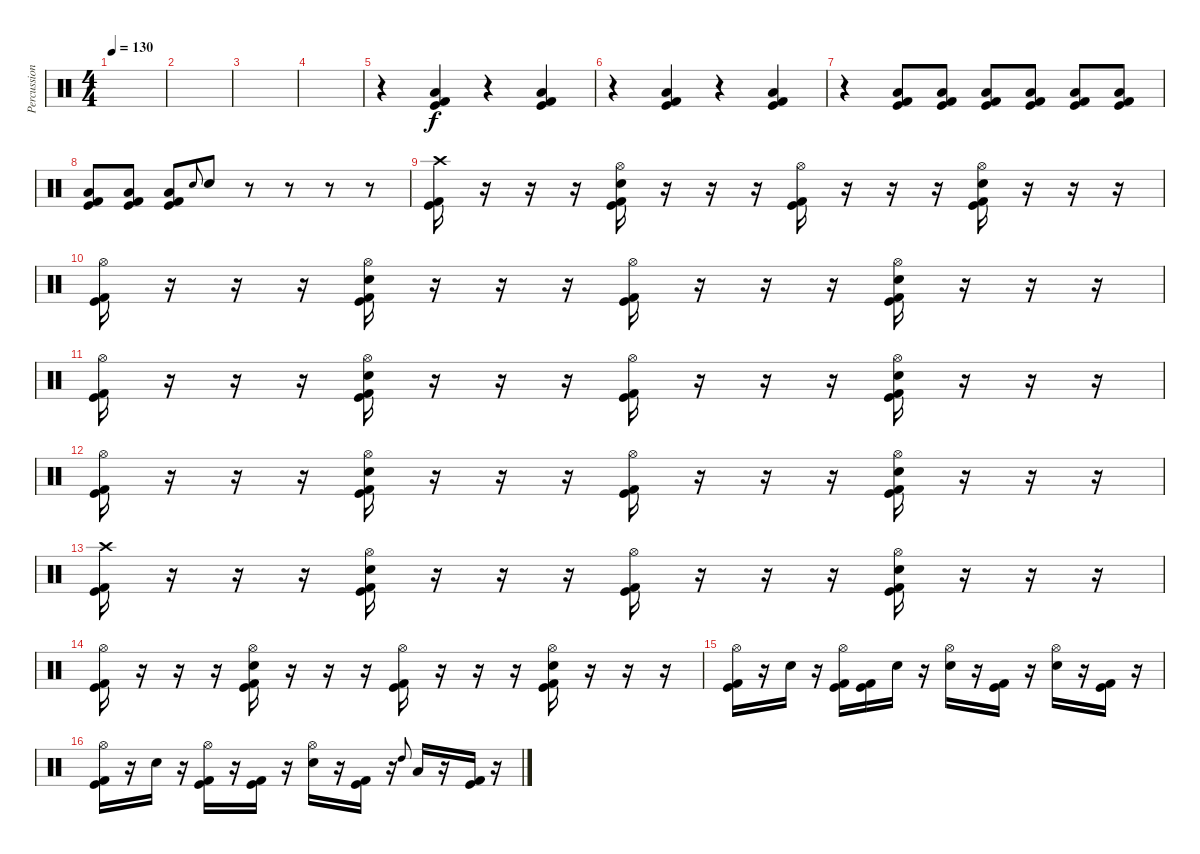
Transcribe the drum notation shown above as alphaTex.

\track ("Percussion" "Percussion") {instrument percussion}
\staff {score}
\articulation defaults
\ts (4 4)
\tempo 130
\clef neutral
\ks c
|
|
|
|
r.4 ("Low Tom (hit)" "Kick (hit)" "Kick (hit) 2").4 r.4 ("Low Tom (hit)" "Kick (hit)" "Kick (hit) 2").4 |
r.4 ("Low Tom (hit)" "Kick (hit)" "Kick (hit) 2").4 r.4 ("Low Tom (hit)" "Kick (hit)" "Kick (hit) 2").4 |
r.4 ("Low Tom (hit)" "Kick (hit)" "Kick (hit) 2").8 ("Low Tom (hit)" "Kick (hit)" "Kick (hit) 2").8 ("Low Tom (hit)" "Kick (hit)" "Kick (hit) 2").8 ("Low Tom (hit)" "Kick (hit)" "Kick (hit) 2").8 ("Low Tom (hit)" "Kick (hit)" "Kick (hit) 2").8 ("Low Tom (hit)" "Kick (hit)" "Kick (hit) 2").8 |
("Low Tom (hit)" "Kick (hit)" "Kick (hit) 2").8 ("Low Tom (hit)" "Kick (hit)" "Kick (hit) 2").8 ("Low Tom (hit)" "Kick (hit)" "Kick (hit) 2").8 "Electric Snare (hit)"{x}.8{gr onbeat} "Electric Snare (hit)".8 r.8 r.8 r.8 r.8 |
("Crash high (hit)" "Kick (hit)" "Kick (hit) 2").16 r.16 r.16 r.16 ("Hi-Hat (open)" "Electric Snare (hit)" "Kick (hit)" "Kick (hit) 2").16 r.16 r.16 r.16 ("Hi-Hat (open)" "Kick (hit)" "Kick (hit) 2").16 r.16 r.16 r.16 ("Hi-Hat (open)" "Electric Snare (hit)" "Kick (hit)" "Kick (hit) 2").16 r.16 r.16 r.16 |
("Hi-Hat (open)" "Kick (hit)" "Kick (hit) 2").16 r.16 r.16 r.16 ("Hi-Hat (open)" "Electric Snare (hit)" "Kick (hit)" "Kick (hit) 2").16 r.16 r.16 r.16 ("Hi-Hat (open)" "Kick (hit)" "Kick (hit) 2").16 r.16 r.16 r.16 ("Hi-Hat (open)" "Electric Snare (hit)" "Kick (hit)" "Kick (hit) 2").16 r.16 r.16 r.16 |
("Hi-Hat (open)" "Kick (hit)" "Kick (hit) 2").16 r.16 r.16 r.16 ("Hi-Hat (open)" "Electric Snare (hit)" "Kick (hit)" "Kick (hit) 2").16 r.16 r.16 r.16 ("Hi-Hat (open)" "Kick (hit)" "Kick (hit) 2").16 r.16 r.16 r.16 ("Hi-Hat (open)" "Electric Snare (hit)" "Kick (hit)" "Kick (hit) 2").16 r.16 r.16 r.16 |
("Hi-Hat (open)" "Kick (hit)" "Kick (hit) 2").16 r.16 r.16 r.16 ("Hi-Hat (open)" "Electric Snare (hit)" "Kick (hit)" "Kick (hit) 2").16 r.16 r.16 r.16 ("Hi-Hat (open)" "Kick (hit)" "Kick (hit) 2").16 r.16 r.16 r.16 ("Hi-Hat (open)" "Electric Snare (hit)" "Kick (hit)" "Kick (hit) 2").16 r.16 r.16 r.16 |
("Crash high (hit)" "Kick (hit)" "Kick (hit) 2").16 r.16 r.16 r.16 ("Hi-Hat (open)" "Electric Snare (hit)" "Kick (hit)" "Kick (hit) 2").16 r.16 r.16 r.16 ("Hi-Hat (open)" "Kick (hit)" "Kick (hit) 2").16 r.16 r.16 r.16 ("Hi-Hat (open)" "Electric Snare (hit)" "Kick (hit)" "Kick (hit) 2").16 r.16 r.16 r.16 |
("Hi-Hat (open)" "Kick (hit)" "Kick (hit) 2").16 r.16 r.16 r.16 ("Hi-Hat (open)" "Electric Snare (hit)" "Kick (hit)" "Kick (hit) 2").16 r.16 r.16 r.16 ("Hi-Hat (open)" "Kick (hit)" "Kick (hit) 2").16 r.16 r.16 r.16 ("Hi-Hat (open)" "Electric Snare (hit)" "Kick (hit)" "Kick (hit) 2").16 r.16 r.16 r.16 |
("Hi-Hat (open)" "Kick (hit)" "Kick (hit) 2").16 r.16 "Electric Snare (hit)".16 r.16 ("Hi-Hat (open)" "Kick (hit)" "Kick (hit) 2").16 ("Kick (hit)" "Kick (hit) 2").16 "Electric Snare (hit)".16 r.16 ("Hi-Hat (open)" "Electric Snare (hit)").16 r.16 ("Kick (hit)" "Kick (hit) 2").16 r.16 ("Hi-Hat (open)" "Electric Snare (hit)").16 r.16 ("Kick (hit)" "Kick (hit) 2").16 r.16 |
("Hi-Hat (open)" "Kick (hit)" "Kick (hit) 2").16 r.16 "Electric Snare (hit)".16 r.16 ("Hi-Hat (open)" "Kick (hit)" "Kick (hit) 2").16 r.16 ("Kick (hit)" "Kick (hit) 2").16 r.16 ("Hi-Hat (open)" "Electric Snare (hit)").16 r.16 ("Kick (hit)" "Kick (hit) 2").16 r.16 "High Tom (hit)"{x}.8{gr onbeat} "Low Tom (hit)".16 r.16 ("Kick (hit)" "Kick (hit) 2").16 r.16
